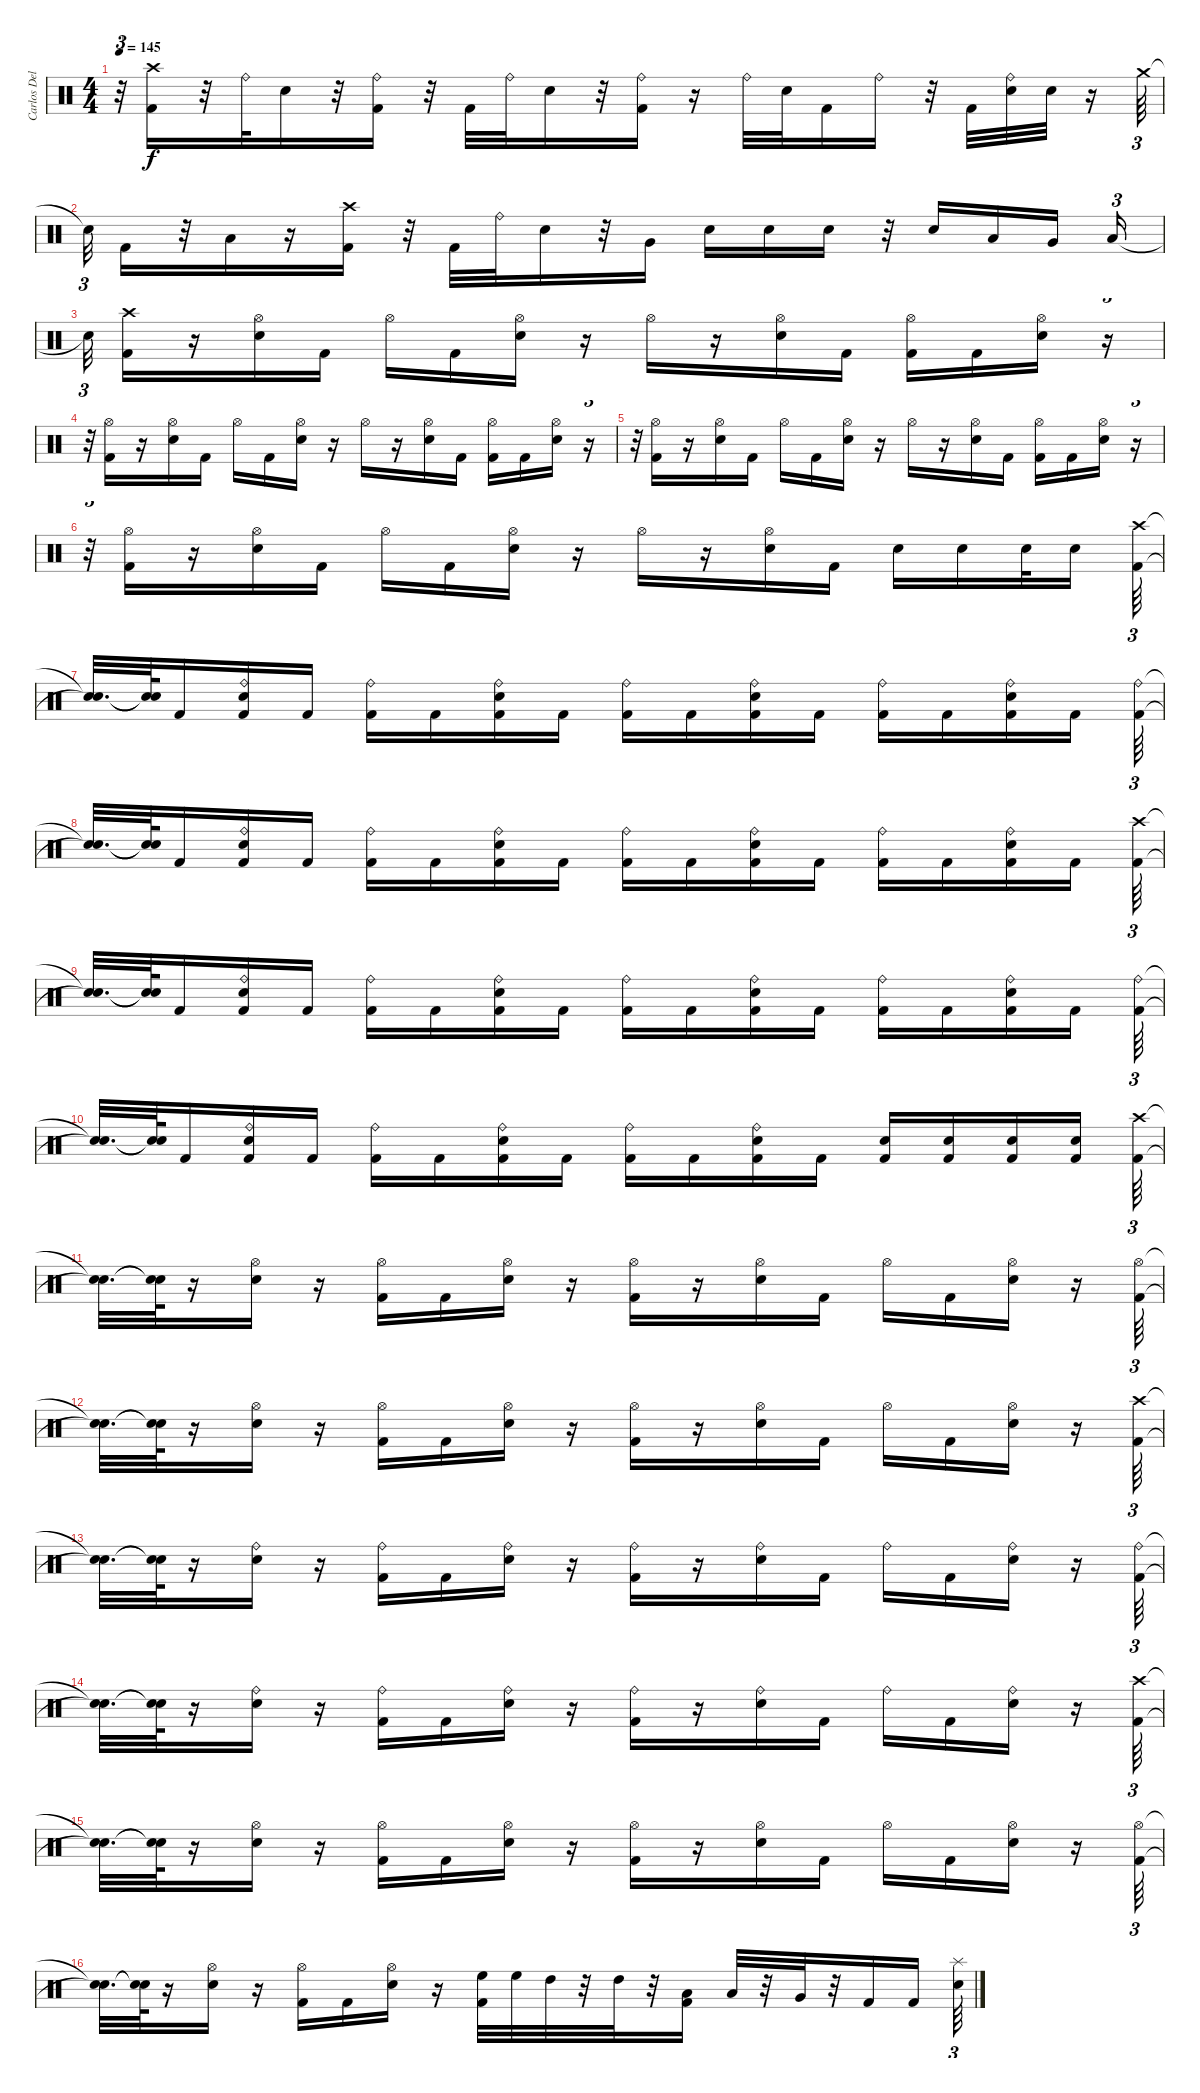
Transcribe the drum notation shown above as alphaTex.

\track ("Carlos Delgado" "Carlos Del") {instrument percussion}
\staff {score}
\articulation defaults
\ts (4 4)
\tempo 145
\clef neutral
\ks c
r.32{tu (3 2) dy f} ("Crash high (hit)" "Kick (hit) 2").16 r.32 "Ride (bell)".32 "Electric Snare (hit)".16 r.32 ("Kick (hit) 2" "Ride (bell)").16 r.32 "Kick (hit) 2".32 "Ride (bell)".32 "Electric Snare (hit)".16 r.32 ("Kick (hit) 2" "Ride (bell)").16 r.16 "Ride (bell)".32 "Electric Snare (hit)".32 "Kick (hit) 2".16 "Ride (bell)".16 r.32 "Kick (hit) 2".32 ("Electric Snare (hit)" "Ride (bell)").32 "Electric Snare (hit)".32 r.16 "Crash medium (hit)".64{tu (3 2)} |
"Snare (hit)"{t}.32{tu (3 2)} "Kick (hit) 2".16 r.32 "Low Floor Tom (hit)".16 r.16 ("Kick (hit) 2" "Crash high (hit)").16 r.32 "Kick (hit) 2".32 "Ride (bell)".32 "Electric Snare (hit)".16 r.32 "Very Low Tom (hit)".16 "Electric Snare (hit)".16 "Electric Snare (hit)".16 "Electric Snare (hit)".16 r.32 "Electric Snare (hit)".16 "Low Tom (hit)".16 "Very Low Tom (hit)".16{beam splitsecondary} "Low Floor Tom (hit)".16{tu (3 2)} |
"Snare (hit)"{t}.32{tu (3 2)} ("Kick (hit) 2" "Crash high (hit)").16 r.16 ("Electric Snare (hit)" "Hi-Hat (open)").16 "Kick (hit) 2".16 "Hi-Hat (open)".16 "Kick (hit) 2".16 ("Electric Snare (hit)" "Hi-Hat (open)").16 r.16 "Hi-Hat (open)".16 r.16 ("Hi-Hat (open)" "Electric Snare (hit)").16 "Kick (hit) 2".16 ("Hi-Hat (open)" "Kick (hit) 2").16 "Kick (hit) 2".16 ("Hi-Hat (open)" "Electric Snare (hit)").16 r.16{tu (3 2)} |
r.32{tu (3 2)} ("Hi-Hat (open)" "Kick (hit) 2").16 r.16 ("Hi-Hat (open)" "Electric Snare (hit)").16 "Kick (hit) 2".16 "Hi-Hat (open)".16 "Kick (hit) 2".16 ("Electric Snare (hit)" "Hi-Hat (open)").16 r.16 "Hi-Hat (open)".16 r.16 ("Hi-Hat (open)" "Electric Snare (hit)").16 "Kick (hit) 2".16 ("Kick (hit) 2" "Hi-Hat (open)").16 "Kick (hit) 2".16 ("Hi-Hat (open)" "Electric Snare (hit)").16 r.16{tu (3 2)} |
r.32{tu (3 2)} ("Hi-Hat (open)" "Kick (hit) 2").16 r.16 ("Hi-Hat (open)" "Electric Snare (hit)").16 "Kick (hit) 2".16 "Hi-Hat (open)".16 "Kick (hit) 2".16 ("Hi-Hat (open)" "Electric Snare (hit)").16 r.16 "Hi-Hat (open)".16 r.16 ("Hi-Hat (open)" "Electric Snare (hit)").16 "Kick (hit) 2".16 ("Hi-Hat (open)" "Kick (hit) 2").16 "Kick (hit) 2".16 ("Electric Snare (hit)" "Hi-Hat (open)").16 r.16{tu (3 2)} |
r.32{tu (3 2)} ("Kick (hit) 2" "Hi-Hat (open)").16 r.16 ("Electric Snare (hit)" "Hi-Hat (open)").16 "Kick (hit) 2".16 "Hi-Hat (open)".16 "Kick (hit) 2".16 ("Hi-Hat (open)" "Electric Snare (hit)").16 r.16 "Hi-Hat (open)".16 r.16 ("Electric Snare (hit)" "Hi-Hat (open)").16 "Kick (hit) 2".16 "Electric Snare (hit)".16 "Electric Snare (hit)".16 "Electric Snare (hit)".32 "Electric Snare (hit)".16{beam splitsecondary} ("Kick (hit) 2" "Crash high (hit)").64{tu (3 2)} |
("Snare (hit)"{t} "Snare (hit)"{t}).32{d} ("Snare (hit)"{t} "Snare (hit)"{t}).64 "Kick (hit) 2".16 ("Ride (bell)" "Kick (hit) 2" "Electric Snare (hit)").16 "Kick (hit) 2".16 ("Kick (hit) 2" "Ride (bell)").16 "Kick (hit) 2".16 ("Kick (hit) 2" "Electric Snare (hit)" "Ride (bell)").16 "Kick (hit) 2".16 ("Kick (hit) 2" "Ride (bell)").16 "Kick (hit) 2".16 ("Kick (hit) 2" "Electric Snare (hit)" "Ride (bell)").16 "Kick (hit) 2".16 ("Ride (bell)" "Kick (hit) 2").16 "Kick (hit) 2".16 ("Kick (hit) 2" "Electric Snare (hit)" "Ride (bell)").16 "Kick (hit) 2".16 ("Kick (hit) 2" "Ride (bell)").64{tu (3 2)} |
("Snare (hit)"{t} "Snare (hit)"{t}).32{d} ("Snare (hit)"{t} "Snare (hit)"{t}).64 "Kick (hit) 2".16 ("Ride (bell)" "Kick (hit) 2" "Electric Snare (hit)").16 "Kick (hit) 2".16 ("Kick (hit) 2" "Ride (bell)").16 "Kick (hit) 2".16 ("Kick (hit) 2" "Electric Snare (hit)" "Ride (bell)").16 "Kick (hit) 2".16 ("Kick (hit) 2" "Ride (bell)").16 "Kick (hit) 2".16 ("Kick (hit) 2" "Ride (bell)" "Electric Snare (hit)").16 "Kick (hit) 2".16 ("Kick (hit) 2" "Ride (bell)").16 "Kick (hit) 2".16 ("Ride (bell)" "Kick (hit) 2" "Electric Snare (hit)").16 "Kick (hit) 2".16 ("Kick (hit) 2" "Crash high (hit)").64{tu (3 2)} |
("Snare (hit)"{t} "Snare (hit)"{t}).32{d} ("Snare (hit)"{t} "Snare (hit)"{t}).64 "Kick (hit) 2".16 ("Ride (bell)" "Kick (hit) 2" "Electric Snare (hit)").16 "Kick (hit) 2".16 ("Kick (hit) 2" "Ride (bell)").16 "Kick (hit) 2".16 ("Kick (hit) 2" "Electric Snare (hit)" "Ride (bell)").16 "Kick (hit) 2".16 ("Kick (hit) 2" "Ride (bell)").16 "Kick (hit) 2".16 ("Kick (hit) 2" "Electric Snare (hit)" "Ride (bell)").16 "Kick (hit) 2".16 ("Ride (bell)" "Kick (hit) 2").16 "Kick (hit) 2".16 ("Kick (hit) 2" "Electric Snare (hit)" "Ride (bell)").16 "Kick (hit) 2".16 ("Kick (hit) 2" "Ride (bell)").64{tu (3 2)} |
("Snare (hit)"{t} "Snare (hit)"{t}).32{d} ("Snare (hit)"{t} "Snare (hit)"{t}).64 "Kick (hit) 2".16 ("Ride (bell)" "Kick (hit) 2" "Electric Snare (hit)").16 "Kick (hit) 2".16 ("Kick (hit) 2" "Ride (bell)").16 "Kick (hit) 2".16 ("Kick (hit) 2" "Electric Snare (hit)" "Ride (bell)").16 "Kick (hit) 2".16 ("Kick (hit) 2" "Ride (bell)").16 "Kick (hit) 2".16 ("Kick (hit) 2" "Ride (bell)" "Electric Snare (hit)").16 "Kick (hit) 2".16 ("Electric Snare (hit)" "Kick (hit) 2").16 ("Kick (hit) 2" "Electric Snare (hit)").16 ("Kick (hit) 2" "Electric Snare (hit)").16 ("Electric Snare (hit)" "Kick (hit) 2").16 ("Kick (hit) 2" "Crash high (hit)").64{tu (3 2)} |
("Snare (hit)"{t} "Snare (hit)"{t}).32{d} ("Snare (hit)"{t} "Snare (hit)"{t}).64 r.16 ("Hi-Hat (open)" "Electric Snare (hit)").16 r.16 ("Hi-Hat (open)" "Kick (hit) 2").16 "Kick (hit) 2".16 ("Hi-Hat (open)" "Electric Snare (hit)").16 r.16 ("Hi-Hat (open)" "Kick (hit) 2").16 r.16 ("Hi-Hat (open)" "Electric Snare (hit)").16 "Kick (hit) 2".16 "Hi-Hat (open)".16 "Kick (hit) 2".16 ("Hi-Hat (open)" "Electric Snare (hit)").16 r.16 ("Hi-Hat (open)" "Kick (hit) 2").64{tu (3 2)} |
("Snare (hit)"{t} "Snare (hit)"{t}).32{d} ("Snare (hit)"{t} "Snare (hit)"{t}).64 r.16 ("Hi-Hat (open)" "Electric Snare (hit)").16 r.16 ("Hi-Hat (open)" "Kick (hit) 2").16 "Kick (hit) 2".16 ("Hi-Hat (open)" "Electric Snare (hit)").16 r.16 ("Hi-Hat (open)" "Kick (hit) 2").16 r.16 ("Hi-Hat (open)" "Electric Snare (hit)").16 "Kick (hit) 2".16 "Hi-Hat (open)".16 "Kick (hit) 2".16 ("Hi-Hat (open)" "Electric Snare (hit)").16 r.16 ("Crash high (hit)" "Kick (hit) 2").64{tu (3 2)} |
("Snare (hit)"{t} "Snare (hit)"{t}).32{d} ("Snare (hit)"{t} "Snare (hit)"{t}).64 r.16 ("Ride (bell)" "Electric Snare (hit)").16 r.16 ("Kick (hit) 2" "Ride (bell)").16 "Kick (hit) 2".16 ("Ride (bell)" "Electric Snare (hit)").16 r.16 ("Ride (bell)" "Kick (hit) 2").16 r.16 ("Electric Snare (hit)" "Ride (bell)").16 "Kick (hit) 2".16 "Ride (bell)".16 "Kick (hit) 2".16 ("Electric Snare (hit)" "Ride (bell)").16 r.16 ("Ride (bell)" "Kick (hit) 2").64{tu (3 2)} |
("Snare (hit)"{t} "Snare (hit)"{t}).32{d} ("Snare (hit)"{t} "Snare (hit)"{t}).64 r.16 ("Ride (bell)" "Electric Snare (hit)").16 r.16 ("Kick (hit) 2" "Ride (bell)").16 "Kick (hit) 2".16 ("Electric Snare (hit)" "Ride (bell)").16 r.16 ("Kick (hit) 2" "Ride (bell)").16 r.16 ("Ride (bell)" "Electric Snare (hit)").16 "Kick (hit) 2".16 "Ride (bell)".16 "Kick (hit) 2".16 ("Electric Snare (hit)" "Ride (bell)").16 r.16 ("Crash high (hit)" "Kick (hit) 2").64{tu (3 2)} |
("Snare (hit)"{t} "Snare (hit)"{t}).32{d} ("Snare (hit)"{t} "Snare (hit)"{t}).64 r.16 ("Hi-Hat (open)" "Electric Snare (hit)").16 r.16 ("Hi-Hat (open)" "Kick (hit) 2").16 "Kick (hit) 2".16 ("Hi-Hat (open)" "Electric Snare (hit)").16 r.16 ("Hi-Hat (open)" "Kick (hit) 2").16 r.16 ("Hi-Hat (open)" "Electric Snare (hit)").16 "Kick (hit) 2".16 "Hi-Hat (open)".16 "Kick (hit) 2".16 ("Hi-Hat (open)" "Electric Snare (hit)").16 r.16 ("Hi-Hat (open)" "Kick (hit) 2").64{tu (3 2)} |
("Snare (hit)"{t} "Snare (hit)"{t}).32{d} ("Snare (hit)"{t} "Snare (hit)"{t}).64 r.16 ("Hi-Hat (open)" "Electric Snare (hit)").16 r.16 ("Hi-Hat (open)" "Kick (hit) 2").16 "Kick (hit) 2".16 ("Hi-Hat (open)" "Electric Snare (hit)").16 r.16 ("High Floor Tom (hit)" "Kick (hit) 2").32 "High Floor Tom (hit)".32 "High Tom (hit)".32 r.32 "High Tom (hit)".32 r.32 ("Kick (hit) 2" "Low Tom (hit)").16 "Low Tom (hit)".32 r.32 "Very Low Tom (hit)".32 r.32 "Kick (hit) 2".16 "Kick (hit) 2".16 ("Splash (hit)" "Electric Snare (hit)").64{tu (3 2)}
